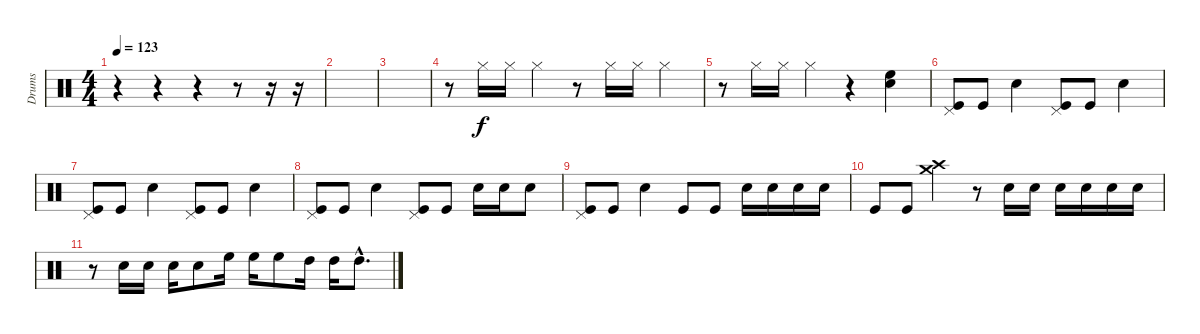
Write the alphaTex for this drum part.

\track ("Drums" "Drums") {instrument percussion}
\staff {score}
\articulation defaults
\ts (4 4)
\tempo 123
\clef neutral
\ks c
r.4{dy f} r.4 r.4 r.8 r.16 r.16 |
|
|
r.8 "Hi-Hat (closed)".16{volume 4} "Hi-Hat (closed)".16{volume 7} "Hi-Hat (closed)".4{volume 13} r.8 "Hi-Hat (closed)".16{volume 4} "Hi-Hat (closed)".16{volume 7} "Hi-Hat (closed)".4{volume 13} |
r.8 "Hi-Hat (closed)".16{volume 4} "Hi-Hat (closed)".16{volume 7} "Hi-Hat (closed)".4{volume 13} r.4 ("Snare (hit) 2" "High Floor Tom (hit)").4 |
("Pedal Hi-Hat (hit)" "Kick (hit)").8 "Kick (hit)".8 "Snare (hit) 2".4 ("Pedal Hi-Hat (hit)" "Kick (hit)").8 "Kick (hit)".8 "Snare (hit) 2".4 |
("Pedal Hi-Hat (hit)" "Kick (hit)").8 "Kick (hit)".8 "Snare (hit) 2".4 ("Pedal Hi-Hat (hit)" "Kick (hit)").8 "Kick (hit)".8 "Snare (hit) 2".4 |
("Pedal Hi-Hat (hit)" "Kick (hit)").8 "Kick (hit)".8 "Snare (hit) 2".4 ("Pedal Hi-Hat (hit)" "Kick (hit)").8 "Kick (hit)".8 "Snare (hit) 2".16 "Snare (hit) 2".16 "Snare (hit) 2".8 |
("Pedal Hi-Hat (hit)" "Kick (hit)").8 "Kick (hit)".8 "Snare (hit) 2".4 "Kick (hit)".8 "Kick (hit)".8 "Snare (hit) 2".16 "Snare (hit) 2".16 "Snare (hit) 2".16 "Snare (hit) 2".16 |
"Kick (hit)".8 "Kick (hit)".8 ("Crash high (hit)" "Crash medium (hit)").4 r.8 "Snare (hit) 2".16 "Snare (hit) 2".16 "Snare (hit) 2".16 "Snare (hit) 2".16 "Snare (hit) 2".16 "Snare (hit) 2".16 |
r.8 "Snare (hit) 2".16 "Snare (hit) 2".16 "Snare (hit) 2".16 "Snare (hit) 2".8 "High Floor Tom (hit)".16 "High Floor Tom (hit)".16 "High Floor Tom (hit)".8 "High Tom (hit)".16 "High Tom (hit)".16 "High Tom (hit)"{hac}.8{d}
